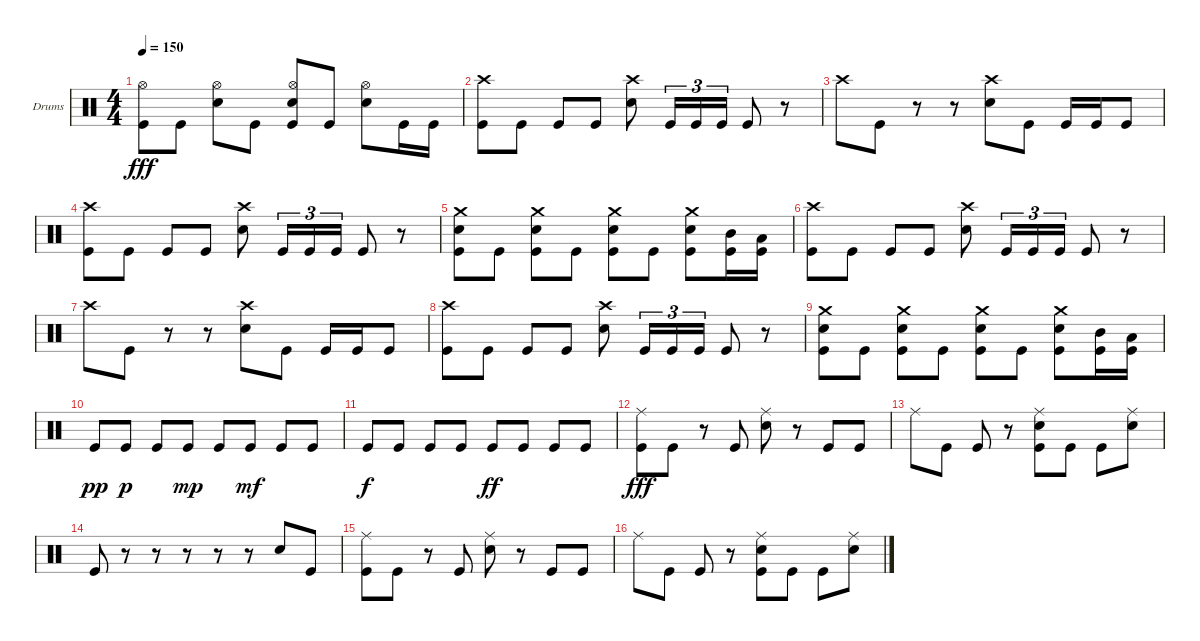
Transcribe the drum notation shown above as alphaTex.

\bracketExtendMode groupsimilarinstruments
\firstSystemTrackNameOrientation horizontal
\otherSystemsTrackNameOrientation horizontal
\track ("Corey" "Drums") {instrument percussion}
\staff {score}
\articulation defaults
\ts (4 4)
\tempo 150
\clef neutral
\ks c
("Kick (hit)" "Hi-Hat (open)").8{dy fff} "Kick (hit)".8 ("Snare (hit) 2" "Hi-Hat (open)").8 "Kick (hit)".8 ("Kick (hit)" "Hi-Hat (open)" "Snare (hit) 2").8 "Kick (hit)".8 ("Snare (hit) 2" "Hi-Hat (open)").8 "Kick (hit)".16 "Kick (hit)".16 |
("Kick (hit)" "Crash high (hit)").8 "Kick (hit)".8 "Kick (hit)".8 "Kick (hit)".8 ("Crash high (hit)" "Snare (hit) 2").8 "Kick (hit)".16{tu (3 2)} "Kick (hit)".16{tu (3 2)} "Kick (hit)".16{tu (3 2)} "Kick (hit)".8 r.8 |
"Crash high (hit)".8 "Kick (hit)".8 r.8 r.8 ("Crash high (hit)" "Snare (hit) 2").8 "Kick (hit)".8 "Kick (hit)".16 "Kick (hit)".16 "Kick (hit)".8 |
("Kick (hit)" "Crash high (hit)").8 "Kick (hit)".8 "Kick (hit)".8 "Kick (hit)".8 ("Crash high (hit)" "Snare (hit) 2").8 "Kick (hit)".16{tu (3 2)} "Kick (hit)".16{tu (3 2)} "Kick (hit)".16{tu (3 2)} "Kick (hit)".8 r.8 |
("Kick (hit)" "Crash medium (hit)" "Snare (hit) 2").8 "Kick (hit)".8 ("Kick (hit)" "Crash medium (hit)" "Snare (hit) 2").8 "Kick (hit)".8 ("Kick (hit)" "Crash medium (hit)" "Snare (hit) 2").8 "Kick (hit)".8 ("Kick (hit)" "Crash medium (hit)" "Snare (hit) 2").8 ("Kick (hit)" "Mid Tom (hit)").16 ("Low Tom (hit)" "Kick (hit)").16 |
("Kick (hit)" "Crash high (hit)").8 "Kick (hit)".8 "Kick (hit)".8 "Kick (hit)".8 ("Crash high (hit)" "Snare (hit) 2").8 "Kick (hit)".16{tu (3 2)} "Kick (hit)".16{tu (3 2)} "Kick (hit)".16{tu (3 2)} "Kick (hit)".8 r.8 |
"Crash high (hit)".8 "Kick (hit)".8 r.8 r.8 ("Crash high (hit)" "Snare (hit) 2").8 "Kick (hit)".8 "Kick (hit)".16 "Kick (hit)".16 "Kick (hit)".8 |
("Kick (hit)" "Crash high (hit)").8 "Kick (hit)".8 "Kick (hit)".8 "Kick (hit)".8 ("Crash high (hit)" "Snare (hit) 2").8 "Kick (hit)".16{tu (3 2)} "Kick (hit)".16{tu (3 2)} "Kick (hit)".16{tu (3 2)} "Kick (hit)".8 r.8 |
("Kick (hit)" "Crash medium (hit)" "Snare (hit) 2").8 "Kick (hit)".8 ("Kick (hit)" "Crash medium (hit)" "Snare (hit) 2").8 "Kick (hit)".8 ("Kick (hit)" "Crash medium (hit)" "Snare (hit) 2").8 "Kick (hit)".8 ("Kick (hit)" "Crash medium (hit)" "Snare (hit) 2").8 ("Kick (hit)" "Mid Tom (hit)").16 ("Low Tom (hit)" "Kick (hit)").16 |
"Kick (hit)".8{dy pp} "Kick (hit)".8{dy p} "Kick (hit)".8 "Kick (hit)".8{dy mp} "Kick (hit)".8 "Kick (hit)".8{dy mf} "Kick (hit)".8 "Kick (hit)".8 |
"Kick (hit)".8{dy f} "Kick (hit)".8 "Kick (hit)".8 "Kick (hit)".8 "Kick (hit)".8{dy ff} "Kick (hit)".8 "Kick (hit)".8 "Kick (hit)".8 |
("Kick (hit)" "Ride (middle)").8{dy fff} "Kick (hit)".8 r.8 "Kick (hit)".8 ("Snare (hit) 2" "Ride (middle)").8 r.8 "Kick (hit)".8 "Kick (hit)".8 |
"Ride (middle)".8 "Kick (hit)".8 "Kick (hit)".8 r.8 ("Kick (hit)" "Ride (middle)" "Snare (hit) 2").8 "Kick (hit)".8 "Kick (hit)".8 ("Snare (hit) 2" "Ride (middle)").8 |
"Kick (hit)".8 r.8 r.8 r.8 r.8 r.8 "Snare (hit) 2".8 "Kick (hit)".8 |
("Kick (hit)" "Ride (middle)").8 "Kick (hit)".8 r.8 "Kick (hit)".8 ("Snare (hit) 2" "Ride (middle)").8 r.8 "Kick (hit)".8 "Kick (hit)".8 |
"Ride (middle)".8 "Kick (hit)".8 "Kick (hit)".8 r.8 ("Kick (hit)" "Ride (middle)" "Snare (hit) 2").8 "Kick (hit)".8 "Kick (hit)".8 ("Snare (hit) 2" "Ride (middle)").8
